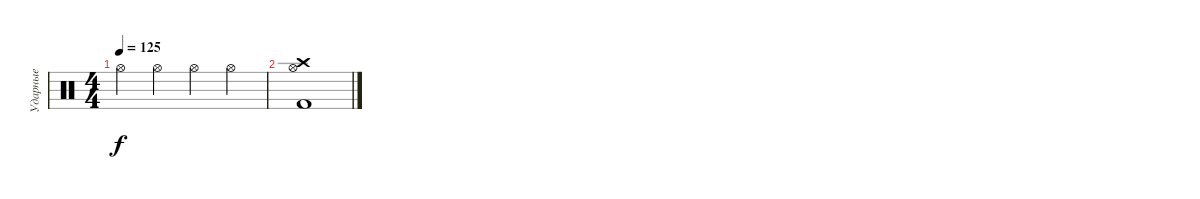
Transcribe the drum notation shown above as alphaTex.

\track ("Ударные" "Ударные") {instrument percussion}
\staff {score}
\articulation defaults
\ts (4 4)
\tempo 125
\clef neutral
\ks c "Hi-Hat (open)".4{dy f} "Hi-Hat (open)".4 "Hi-Hat (open)".4 "Hi-Hat (open)".4
|
("Hi-Hat (open)" "Crash high (hit)" "Kick (hit) 2").1
